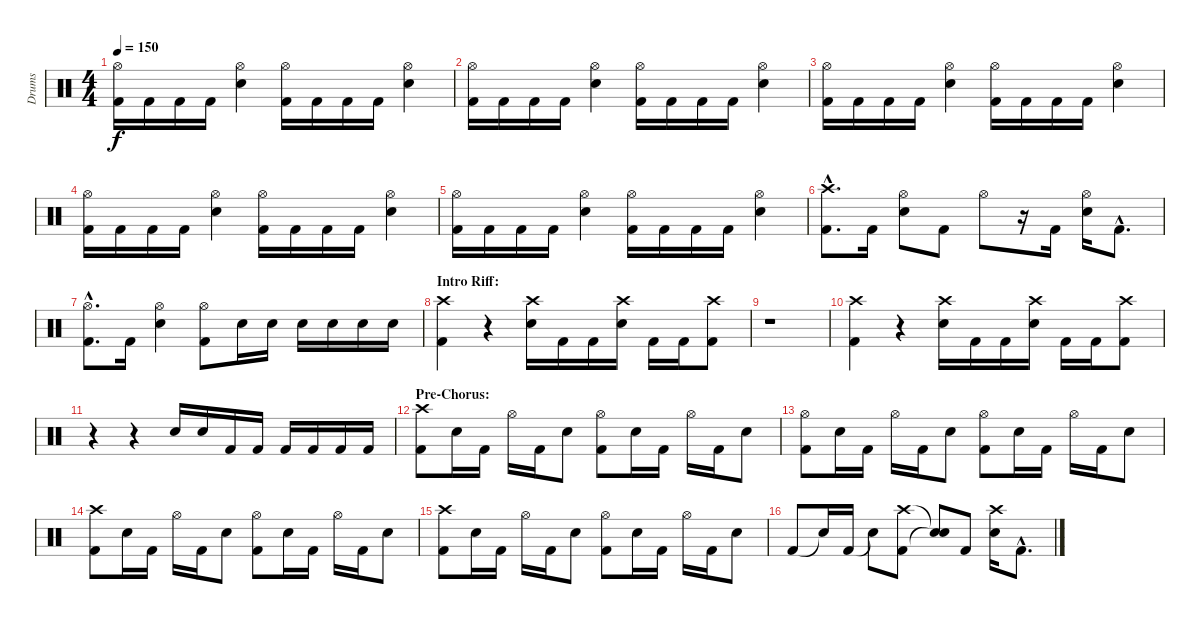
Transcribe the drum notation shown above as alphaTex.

\track ("Drums" "Drums") {instrument percussion}
\staff {score}
\articulation defaults
\ts (4 4)
\tempo 150
\clef neutral
\ks c
("Hi-Hat (open)" "Kick (hit) 2").16{dy f} "Kick (hit) 2".16 "Kick (hit) 2".16 "Kick (hit) 2".16 ("Hi-Hat (open)" "Electric Snare (hit)").4 ("Hi-Hat (open)" "Kick (hit) 2").16 "Kick (hit) 2".16 "Kick (hit) 2".16 "Kick (hit) 2".16 ("Hi-Hat (open)" "Electric Snare (hit)").4 |
("Hi-Hat (open)" "Kick (hit) 2").16 "Kick (hit) 2".16 "Kick (hit) 2".16 "Kick (hit) 2".16 ("Hi-Hat (open)" "Electric Snare (hit)").4 ("Hi-Hat (open)" "Kick (hit) 2").16 "Kick (hit) 2".16 "Kick (hit) 2".16 "Kick (hit) 2".16 ("Hi-Hat (open)" "Electric Snare (hit)").4 |
("Hi-Hat (open)" "Kick (hit) 2").16 "Kick (hit) 2".16 "Kick (hit) 2".16 "Kick (hit) 2".16 ("Hi-Hat (open)" "Electric Snare (hit)").4 ("Hi-Hat (open)" "Kick (hit) 2").16 "Kick (hit) 2".16 "Kick (hit) 2".16 "Kick (hit) 2".16 ("Hi-Hat (open)" "Electric Snare (hit)").4 |
("Hi-Hat (open)" "Kick (hit) 2").16 "Kick (hit) 2".16 "Kick (hit) 2".16 "Kick (hit) 2".16 ("Hi-Hat (open)" "Electric Snare (hit)").4 ("Hi-Hat (open)" "Kick (hit) 2").16 "Kick (hit) 2".16 "Kick (hit) 2".16 "Kick (hit) 2".16 ("Hi-Hat (open)" "Electric Snare (hit)").4 |
("Hi-Hat (open)" "Kick (hit) 2").16 "Kick (hit) 2".16 "Kick (hit) 2".16 "Kick (hit) 2".16 ("Hi-Hat (open)" "Electric Snare (hit)").4 ("Hi-Hat (open)" "Kick (hit) 2").16 "Kick (hit) 2".16 "Kick (hit) 2".16 "Kick (hit) 2".16 ("Hi-Hat (open)" "Electric Snare (hit)").4 |
("Crash high (hit)"{hac} "Kick (hit) 2"{hac}).8{d} "Kick (hit) 2".16 ("Hi-Hat (open)" "Electric Snare (hit)").8 "Kick (hit) 2".8 "Hi-Hat (open)".8 r.16 "Kick (hit) 2".16 ("Hi-Hat (open)" "Electric Snare (hit)").16 "Kick (hit) 2"{hac}.8{d} |
("Hi-Hat (open)"{hac} "Kick (hit) 2"{hac}).8{d} "Kick (hit) 2".16 ("Hi-Hat (open)" "Electric Snare (hit)").4 ("Hi-Hat (open)" "Kick (hit) 2").8 "Electric Snare (hit)".16 "Electric Snare (hit)".16 "Electric Snare (hit)".16 "Electric Snare (hit)".16 "Electric Snare (hit)".16 "Electric Snare (hit)".16 |
\section ("" "Intro Riff:")
("Crash high (hit)" "Kick (hit) 2").4 r.4 ("Crash high (hit)" "Electric Snare (hit)").16 "Kick (hit) 2".16 "Kick (hit) 2".16 ("Crash high (hit)" "Electric Snare (hit)").16 "Kick (hit) 2".16 "Kick (hit) 2".16 ("Crash high (hit)" "Kick (hit) 2").8 |
r.1 |
("Crash high (hit)" "Kick (hit) 2").4 r.4 ("Crash high (hit)" "Electric Snare (hit)").16 "Kick (hit) 2".16 "Kick (hit) 2".16 ("Crash high (hit)" "Electric Snare (hit)").16 "Kick (hit) 2".16 "Kick (hit) 2".16 ("Crash high (hit)" "Kick (hit) 2").8 |
r.4 r.4 "Electric Snare (hit)".16 "Electric Snare (hit)".16 "Kick (hit) 2".16 "Kick (hit) 2".16 "Kick (hit) 2".16 "Kick (hit) 2".16 "Kick (hit) 2".16 "Kick (hit) 2".16 |
\section ("" "Pre-Chorus:")
("Crash high (hit)" "Kick (hit) 2").8 "Electric Snare (hit)".16 "Kick (hit) 2".16 "Hi-Hat (open)".16 "Kick (hit) 2".16 "Electric Snare (hit)".8 ("Hi-Hat (open)" "Kick (hit) 2").8 "Electric Snare (hit)".16 "Kick (hit) 2".16 "Hi-Hat (open)".16 "Kick (hit) 2".16 "Electric Snare (hit)".8 |
("Hi-Hat (open)" "Kick (hit) 2").8 "Electric Snare (hit)".16 "Kick (hit) 2".16 "Hi-Hat (open)".16 "Kick (hit) 2".16 "Electric Snare (hit)".8 ("Hi-Hat (open)" "Kick (hit) 2").8 "Electric Snare (hit)".16 "Kick (hit) 2".16 "Hi-Hat (open)".16 "Kick (hit) 2".16 "Electric Snare (hit)".8 |
("Crash high (hit)" "Kick (hit) 2").8 "Electric Snare (hit)".16 "Kick (hit) 2".16 "Hi-Hat (open)".16 "Kick (hit) 2".16 "Electric Snare (hit)".8 ("Hi-Hat (open)" "Kick (hit) 2").8 "Electric Snare (hit)".16 "Kick (hit) 2".16 "Hi-Hat (open)".16 "Kick (hit) 2".16 "Electric Snare (hit)".8 |
("Crash high (hit)" "Kick (hit) 2").8 "Electric Snare (hit)".16 "Kick (hit) 2".16 "Hi-Hat (open)".16 "Kick (hit) 2".16 "Electric Snare (hit)".8 ("Hi-Hat (open)" "Kick (hit) 2").8 "Electric Snare (hit)".16 "Kick (hit) 2".16 "Hi-Hat (open)".16 "Kick (hit) 2".16 "Electric Snare (hit)".8 |
"Kick (hit) 2".8 "Snare (hit)"{t}.16 "Kick (hit) 2".16 "Snare (hit)"{t}.8 ("Crash high (hit)" "Kick (hit) 2").8 ("Snare (hit)"{t} "Snare (hit)"{t}).8 "Kick (hit) 2".8 ("Crash high (hit)" "Electric Snare (hit)").16 "Kick (hit) 2"{hac}.8{d}
